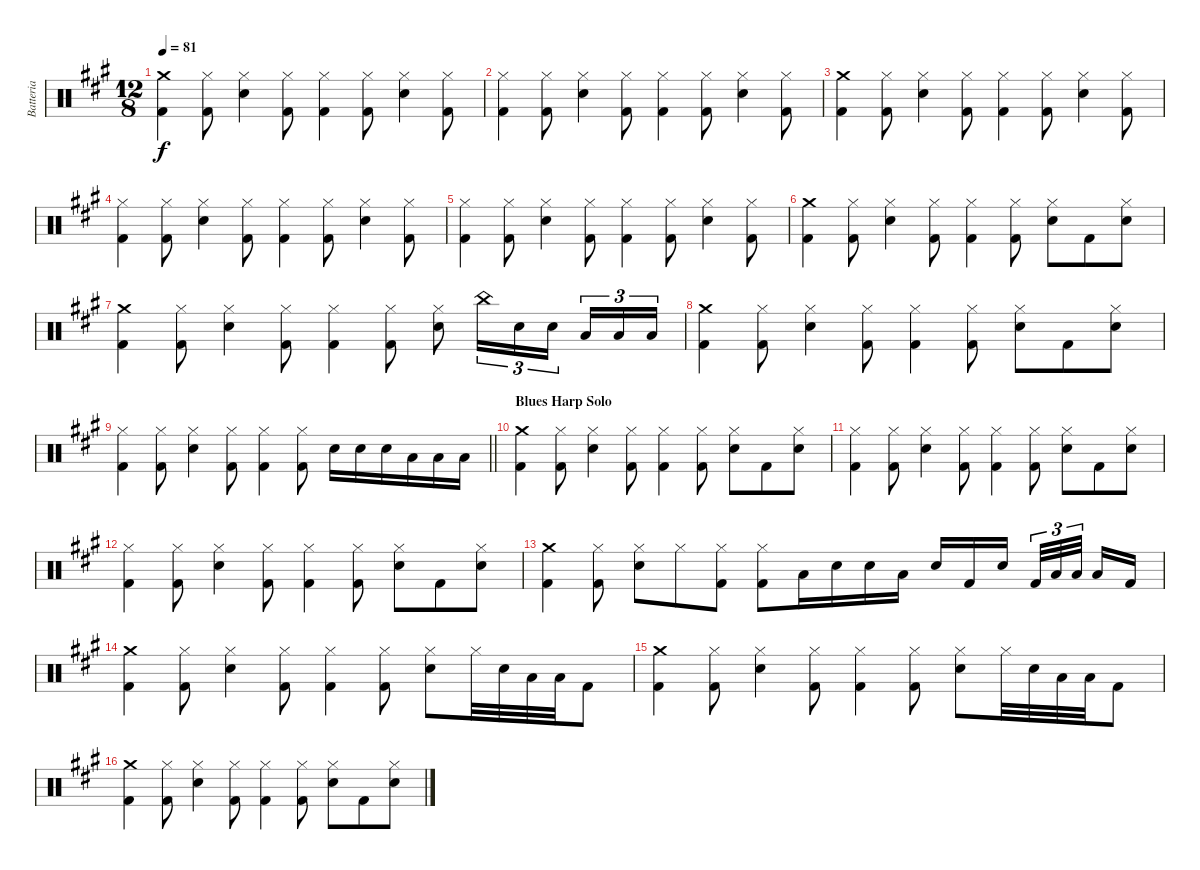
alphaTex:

\track ("Batteria" "Batteria") {instrument percussion}
\staff {score}
\articulation defaults
\ts (12 8)
\tempo 81
\clef neutral
\ks a
("Crash medium (hit)" "Kick (hit) 2").4{dy f} ("Hi-Hat (closed)" "Kick (hit) 2").8 ("Electric Snare (hit)" "Hi-Hat (closed)").4 ("Hi-Hat (closed)" "Kick (hit) 2").8 ("Hi-Hat (closed)" "Kick (hit) 2").4 ("Hi-Hat (closed)" "Kick (hit) 2").8 ("Electric Snare (hit)" "Hi-Hat (closed)").4 ("Hi-Hat (closed)" "Kick (hit) 2").8 |
("Hi-Hat (closed)" "Kick (hit) 2").4 ("Hi-Hat (closed)" "Kick (hit) 2").8 ("Electric Snare (hit)" "Hi-Hat (closed)").4 ("Hi-Hat (closed)" "Kick (hit) 2").8 ("Hi-Hat (closed)" "Kick (hit) 2").4 ("Hi-Hat (closed)" "Kick (hit) 2").8 ("Electric Snare (hit)" "Hi-Hat (closed)").4 ("Hi-Hat (closed)" "Kick (hit) 2").8 |
("Crash medium (hit)" "Kick (hit) 2").4 ("Hi-Hat (closed)" "Kick (hit) 2").8 ("Electric Snare (hit)" "Hi-Hat (closed)").4 ("Hi-Hat (closed)" "Kick (hit) 2").8 ("Hi-Hat (closed)" "Kick (hit) 2").4 ("Hi-Hat (closed)" "Kick (hit) 2").8 ("Electric Snare (hit)" "Hi-Hat (closed)").4 ("Hi-Hat (closed)" "Kick (hit) 2").8 |
("Hi-Hat (closed)" "Kick (hit) 2").4 ("Hi-Hat (closed)" "Kick (hit) 2").8 ("Electric Snare (hit)" "Hi-Hat (closed)").4 ("Hi-Hat (closed)" "Kick (hit) 2").8 ("Hi-Hat (closed)" "Kick (hit) 2").4 ("Hi-Hat (closed)" "Kick (hit) 2").8 ("Electric Snare (hit)" "Hi-Hat (closed)").4 ("Hi-Hat (closed)" "Kick (hit) 2").8 |
("Hi-Hat (closed)" "Kick (hit) 2").4 ("Hi-Hat (closed)" "Kick (hit) 2").8 ("Electric Snare (hit)" "Hi-Hat (closed)").4 ("Hi-Hat (closed)" "Kick (hit) 2").8 ("Hi-Hat (closed)" "Kick (hit) 2").4 ("Hi-Hat (closed)" "Kick (hit) 2").8 ("Electric Snare (hit)" "Hi-Hat (closed)").4 ("Hi-Hat (closed)" "Kick (hit) 2").8 |
("Crash medium (hit)" "Kick (hit) 2").4 ("Hi-Hat (closed)" "Kick (hit) 2").8 ("Electric Snare (hit)" "Hi-Hat (closed)").4 ("Hi-Hat (closed)" "Kick (hit) 2").8 ("Hi-Hat (closed)" "Kick (hit) 2").4 ("Hi-Hat (closed)" "Kick (hit) 2").8 ("Electric Snare (hit)" "Hi-Hat (closed)").8 "Kick (hit) 2".8 ("Electric Snare (hit)" "Hi-Hat (closed)").8 |
("Crash medium (hit)" "Kick (hit) 2").4 ("Hi-Hat (closed)" "Kick (hit) 2").8 ("Electric Snare (hit)" "Hi-Hat (closed)").4 ("Hi-Hat (closed)" "Kick (hit) 2").8 ("Hi-Hat (closed)" "Kick (hit) 2").4 ("Hi-Hat (closed)" "Kick (hit) 2").8 ("Electric Snare (hit)" "Hi-Hat (closed)").8 "China (hit)".16{tu (3 2)} "Electric Snare (hit)".16{tu (3 2)} "Electric Snare (hit)".16{tu (3 2) beam splitsecondary} "Low Tom (hit)".16{tu (3 2)} "Low Tom (hit)".16{tu (3 2)} "Low Floor Tom (hit)".16{tu (3 2)} |
("Crash medium (hit)" "Kick (hit) 2").4 ("Hi-Hat (closed)" "Kick (hit) 2").8 ("Electric Snare (hit)" "Hi-Hat (closed)").4 ("Hi-Hat (closed)" "Kick (hit) 2").8 ("Hi-Hat (closed)" "Kick (hit) 2").4 ("Hi-Hat (closed)" "Kick (hit) 2").8 ("Electric Snare (hit)" "Hi-Hat (closed)").8 "Kick (hit) 2".8 ("Electric Snare (hit)" "Hi-Hat (closed)").8 |
\barLineRight lightlight
("Hi-Hat (closed)" "Kick (hit) 2").4 ("Hi-Hat (closed)" "Kick (hit) 2").8 ("Electric Snare (hit)" "Hi-Hat (closed)").4 ("Hi-Hat (closed)" "Kick (hit) 2").8 ("Hi-Hat (closed)" "Kick (hit) 2").4 ("Hi-Hat (closed)" "Kick (hit) 2").8 "Electric Snare (hit)".16 "Electric Snare (hit)".16 "Electric Snare (hit)".16 "Low Tom (hit)".16 "Low Floor Tom (hit)".16 "Low Floor Tom (hit)".16 |
\section ("" "Blues Harp Solo")
("Crash medium (hit)" "Kick (hit) 2").4 ("Hi-Hat (closed)" "Kick (hit) 2").8 ("Electric Snare (hit)" "Hi-Hat (closed)").4 ("Hi-Hat (closed)" "Kick (hit) 2").8 ("Hi-Hat (closed)" "Kick (hit) 2").4 ("Hi-Hat (closed)" "Kick (hit) 2").8 ("Electric Snare (hit)" "Hi-Hat (closed)").8 "Kick (hit) 2".8 ("Electric Snare (hit)" "Hi-Hat (closed)").8 |
("Hi-Hat (closed)" "Kick (hit) 2").4 ("Hi-Hat (closed)" "Kick (hit) 2").8 ("Electric Snare (hit)" "Hi-Hat (closed)").4 ("Hi-Hat (closed)" "Kick (hit) 2").8 ("Hi-Hat (closed)" "Kick (hit) 2").4 ("Hi-Hat (closed)" "Kick (hit) 2").8 ("Electric Snare (hit)" "Hi-Hat (closed)").8 "Kick (hit) 2".8 ("Electric Snare (hit)" "Hi-Hat (closed)").8 |
("Hi-Hat (closed)" "Kick (hit) 2").4 ("Hi-Hat (closed)" "Kick (hit) 2").8 ("Electric Snare (hit)" "Hi-Hat (closed)").4 ("Hi-Hat (closed)" "Kick (hit) 2").8 ("Hi-Hat (closed)" "Kick (hit) 2").4 ("Hi-Hat (closed)" "Kick (hit) 2").8 ("Electric Snare (hit)" "Hi-Hat (closed)").8 "Kick (hit) 2".8 ("Electric Snare (hit)" "Hi-Hat (closed)").8 |
("Crash medium (hit)" "Kick (hit) 2").4 ("Hi-Hat (closed)" "Kick (hit) 2").8 ("Electric Snare (hit)" "Hi-Hat (closed)").8 "Hi-Hat (closed)".8 ("Hi-Hat (closed)" "Kick (hit) 2").8 ("Hi-Hat (closed)" "Kick (hit) 2").8 "Low Tom (hit)".16 "Electric Snare (hit)".16 "Electric Snare (hit)".16 "Low Tom (hit)".16 "Electric Snare (hit)".16 "Kick (hit) 2".16 "Electric Snare (hit)".16{beam splitsecondary} "Kick (hit) 2".32{tu (3 2)} "Low Tom (hit)".32{tu (3 2)} "Low Floor Tom (hit)".32{tu (3 2) beam splitsecondary} "Low Tom (hit)".16 "Kick (hit) 2".16 |
("Crash medium (hit)" "Kick (hit) 2").4 ("Hi-Hat (closed)" "Kick (hit) 2").8 ("Electric Snare (hit)" "Hi-Hat (closed)").4 ("Hi-Hat (closed)" "Kick (hit) 2").8 ("Hi-Hat (closed)" "Kick (hit) 2").4 ("Hi-Hat (closed)" "Kick (hit) 2").8 ("Electric Snare (hit)" "Hi-Hat (closed)").8 "Hi-Hat (closed)".32 "Electric Snare (hit)".32 "Low Tom (hit)".32 "Low Floor Tom (hit)".32 "Kick (hit) 2".8 |
("Crash medium (hit)" "Kick (hit) 2").4 ("Hi-Hat (closed)" "Kick (hit) 2").8 ("Electric Snare (hit)" "Hi-Hat (closed)").4 ("Hi-Hat (closed)" "Kick (hit) 2").8 ("Hi-Hat (closed)" "Kick (hit) 2").4 ("Hi-Hat (closed)" "Kick (hit) 2").8 ("Electric Snare (hit)" "Hi-Hat (closed)").8 "Hi-Hat (closed)".32 "Electric Snare (hit)".32 "Low Tom (hit)".32 "Low Floor Tom (hit)".32 "Kick (hit) 2".8 |
("Crash medium (hit)" "Kick (hit) 2").4 ("Hi-Hat (closed)" "Kick (hit) 2").8 ("Electric Snare (hit)" "Hi-Hat (closed)").4 ("Hi-Hat (closed)" "Kick (hit) 2").8 ("Hi-Hat (closed)" "Kick (hit) 2").4 ("Hi-Hat (closed)" "Kick (hit) 2").8 ("Electric Snare (hit)" "Hi-Hat (closed)").8 "Kick (hit) 2".8 ("Electric Snare (hit)" "Hi-Hat (closed)").8
